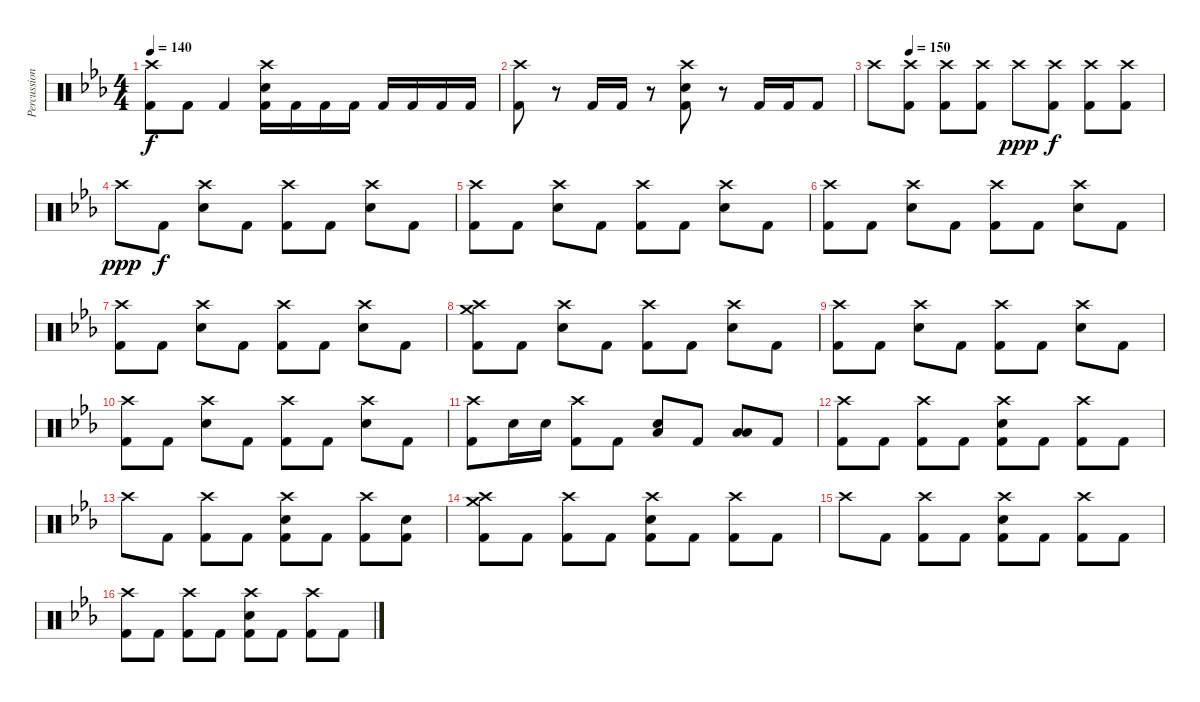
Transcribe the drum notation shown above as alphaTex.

\track ("Percussion" "Percussion") {instrument percussion}
\staff {score}
\articulation defaults
\ts (4 4)
\tempo 140
\clef neutral
\ks cminor
("Crash high (hit)" "Kick (hit) 2").8{dy f} "Kick (hit) 2".8 "Kick (hit) 2".4 ("Crash high (hit)" "Electric Snare (hit)" "Kick (hit) 2").16 "Kick (hit) 2".16 "Kick (hit) 2".16 "Kick (hit) 2".16 "Kick (hit) 2".16 "Kick (hit) 2".16 "Kick (hit) 2".16 "Kick (hit) 2".16 |
("Crash high (hit)" "Kick (hit) 2").8 r.8 "Kick (hit) 2".16 "Kick (hit) 2".16 r.8 ("Crash high (hit)" "Electric Snare (hit)" "Kick (hit) 2").8 r.8 "Kick (hit) 2".16 "Kick (hit) 2".16 "Kick (hit) 2".8 |
\tempo (150 0.125)
"Crash high (hit)".8 ("Crash high (hit)" "Kick (hit) 2").8 ("Crash high (hit)" "Kick (hit) 2").8 ("Crash high (hit)" "Kick (hit) 2").8 "Crash high (hit)".8{dy ppp} ("Crash high (hit)" "Kick (hit) 2").8{dy f} ("Crash high (hit)" "Kick (hit) 2").8 ("Crash high (hit)" "Kick (hit) 2").8 |
"Crash high (hit)".8{dy ppp} "Kick (hit) 2".8{dy f} ("Crash high (hit)" "Electric Snare (hit)").8 "Kick (hit) 2".8 ("Crash high (hit)" "Kick (hit) 2").8 "Kick (hit) 2".8 ("Crash high (hit)" "Electric Snare (hit)").8 "Kick (hit) 2".8 |
("Crash high (hit)" "Kick (hit) 2").8 "Kick (hit) 2".8 ("Crash high (hit)" "Electric Snare (hit)").8 "Kick (hit) 2".8 ("Crash high (hit)" "Kick (hit) 2").8 "Kick (hit) 2".8 ("Crash high (hit)" "Electric Snare (hit)").8 "Kick (hit) 2".8 |
("Crash high (hit)" "Kick (hit) 2").8 "Kick (hit) 2".8 ("Crash high (hit)" "Electric Snare (hit)").8 "Kick (hit) 2".8 ("Crash high (hit)" "Kick (hit) 2").8 "Kick (hit) 2".8 ("Crash high (hit)" "Electric Snare (hit)").8 "Kick (hit) 2".8 |
("Crash high (hit)" "Kick (hit) 2").8 "Kick (hit) 2".8 ("Crash high (hit)" "Electric Snare (hit)").8 "Kick (hit) 2".8 ("Crash high (hit)" "Kick (hit) 2").8 "Kick (hit) 2".8 ("Crash high (hit)" "Electric Snare (hit)").8 "Kick (hit) 2".8 |
("Crash high (hit)" "Crash medium (hit)" "Kick (hit) 2").8 "Kick (hit) 2".8 ("Crash high (hit)" "Electric Snare (hit)").8 "Kick (hit) 2".8 ("Crash high (hit)" "Kick (hit) 2").8 "Kick (hit) 2".8 ("Crash high (hit)" "Electric Snare (hit)").8 "Kick (hit) 2".8 |
("Crash high (hit)" "Kick (hit) 2").8 "Kick (hit) 2".8 ("Crash high (hit)" "Electric Snare (hit)").8 "Kick (hit) 2".8 ("Crash high (hit)" "Kick (hit) 2").8 "Kick (hit) 2".8 ("Crash high (hit)" "Electric Snare (hit)").8 "Kick (hit) 2".8 |
("Crash high (hit)" "Kick (hit) 2").8 "Kick (hit) 2".8 ("Crash high (hit)" "Electric Snare (hit)").8 "Kick (hit) 2".8 ("Crash high (hit)" "Kick (hit) 2").8 "Kick (hit) 2".8 ("Crash high (hit)" "Electric Snare (hit)").8 "Kick (hit) 2".8 |
("Crash high (hit)" "Kick (hit) 2").8 "Electric Snare (hit)".16 "Electric Snare (hit)".16 ("Crash high (hit)" "Kick (hit) 2").8 "Kick (hit) 2".8 ("Low Floor Tom (hit)" "Electric Snare (hit)").8 "Kick (hit) 2".8 ("Low Tom (hit)" "Low Floor Tom (hit)").8 "Kick (hit) 2".8 |
("Crash high (hit)" "Kick (hit) 2").8 "Kick (hit) 2".8 ("Crash high (hit)" "Kick (hit) 2").8 "Kick (hit) 2".8 ("Crash high (hit)" "Electric Snare (hit)" "Kick (hit) 2").8 "Kick (hit) 2".8 ("Crash high (hit)" "Kick (hit) 2").8 "Kick (hit) 2".8 |
"Crash high (hit)".8 "Kick (hit) 2".8 ("Crash high (hit)" "Kick (hit) 2").8 "Kick (hit) 2".8 ("Crash high (hit)" "Electric Snare (hit)" "Kick (hit) 2").8 "Kick (hit) 2".8 ("Crash high (hit)" "Kick (hit) 2").8 ("Electric Snare (hit)" "Kick (hit) 2").8 |
("Crash high (hit)" "Crash medium (hit)" "Kick (hit) 2").8 "Kick (hit) 2".8 ("Crash high (hit)" "Kick (hit) 2").8 "Kick (hit) 2".8 ("Crash high (hit)" "Electric Snare (hit)" "Kick (hit) 2").8 "Kick (hit) 2".8 ("Crash high (hit)" "Kick (hit) 2").8 "Kick (hit) 2".8 |
"Crash high (hit)".8 "Kick (hit) 2".8 ("Crash high (hit)" "Kick (hit) 2").8 "Kick (hit) 2".8 ("Crash high (hit)" "Electric Snare (hit)" "Kick (hit) 2").8 "Kick (hit) 2".8 ("Crash high (hit)" "Kick (hit) 2").8 "Kick (hit) 2".8 |
("Crash high (hit)" "Kick (hit) 2").8 "Kick (hit) 2".8 ("Crash high (hit)" "Kick (hit) 2").8 "Kick (hit) 2".8 ("Crash high (hit)" "Electric Snare (hit)" "Kick (hit) 2").8 "Kick (hit) 2".8 ("Crash high (hit)" "Kick (hit) 2").8 "Kick (hit) 2".8
